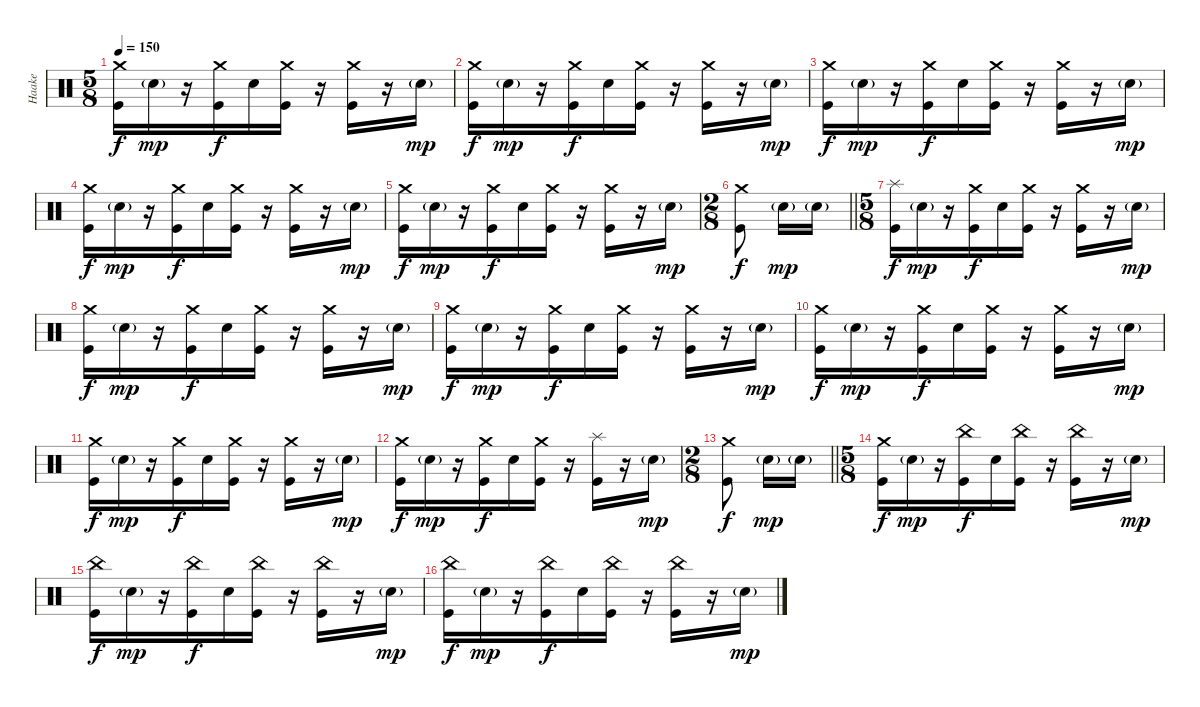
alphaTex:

\track ("Haake" "Haake") {instrument percussion}
\staff {score}
\articulation defaults
\ts (5 8)
\tempo 150
\clef neutral
\ks c
("Crash medium (hit)" "Kick (hit)").16{dy f} "Snare (hit) 2"{g}.16{dy mp} r.16 ("Crash medium (hit)" "Kick (hit)").16{dy f} "Snare (hit) 2".16 ("Crash medium (hit)" "Kick (hit)").16 r.16 ("Crash medium (hit)" "Kick (hit)").16 r.16 "Snare (hit) 2"{g}.16{dy mp} |
("Crash medium (hit)" "Kick (hit)").16{dy f} "Snare (hit) 2"{g}.16{dy mp} r.16 ("Crash medium (hit)" "Kick (hit)").16{dy f} "Snare (hit) 2".16 ("Crash medium (hit)" "Kick (hit)").16 r.16 ("Crash medium (hit)" "Kick (hit)").16 r.16 "Snare (hit) 2"{g}.16{dy mp} |
("Crash medium (hit)" "Kick (hit)").16{dy f} "Snare (hit) 2"{g}.16{dy mp} r.16 ("Crash medium (hit)" "Kick (hit)").16{dy f} "Snare (hit) 2".16 ("Crash medium (hit)" "Kick (hit)").16 r.16 ("Crash medium (hit)" "Kick (hit)").16 r.16 "Snare (hit) 2"{g}.16{dy mp} |
("Crash medium (hit)" "Kick (hit)").16{dy f} "Snare (hit) 2"{g}.16{dy mp} r.16 ("Crash medium (hit)" "Kick (hit)").16{dy f} "Snare (hit) 2".16 ("Crash medium (hit)" "Kick (hit)").16 r.16 ("Crash medium (hit)" "Kick (hit)").16 r.16 "Snare (hit) 2"{g}.16{dy mp} |
("Crash medium (hit)" "Kick (hit)").16{dy f} "Snare (hit) 2"{g}.16{dy mp} r.16 ("Crash medium (hit)" "Kick (hit)").16{dy f} "Snare (hit) 2".16 ("Crash medium (hit)" "Kick (hit)").16 r.16 ("Crash medium (hit)" "Kick (hit)").16 r.16 "Snare (hit) 2"{g}.16{dy mp} |
\ts (2 8)
\barLineRight lightlight
("Crash medium (hit)" "Kick (hit)").8{dy f} "Snare (hit) 2"{g}.16{dy mp} "Snare (hit) 2"{g}.16 |
\ts (5 8)
("Splash (hit)" "Kick (hit)").16{dy f} "Snare (hit) 2"{g}.16{dy mp} r.16 ("Crash medium (hit)" "Kick (hit)").16{dy f} "Snare (hit) 2".16 ("Crash medium (hit)" "Kick (hit)").16 r.16 ("Crash medium (hit)" "Kick (hit)").16 r.16 "Snare (hit) 2"{g}.16{dy mp} |
("Crash medium (hit)" "Kick (hit)").16{dy f} "Snare (hit) 2"{g}.16{dy mp} r.16 ("Crash medium (hit)" "Kick (hit)").16{dy f} "Snare (hit) 2".16 ("Crash medium (hit)" "Kick (hit)").16 r.16 ("Crash medium (hit)" "Kick (hit)").16 r.16 "Snare (hit) 2"{g}.16{dy mp} |
("Crash medium (hit)" "Kick (hit)").16{dy f} "Snare (hit) 2"{g}.16{dy mp} r.16 ("Crash medium (hit)" "Kick (hit)").16{dy f} "Snare (hit) 2".16 ("Crash medium (hit)" "Kick (hit)").16 r.16 ("Crash medium (hit)" "Kick (hit)").16 r.16 "Snare (hit) 2"{g}.16{dy mp} |
("Crash medium (hit)" "Kick (hit)").16{dy f} "Snare (hit) 2"{g}.16{dy mp} r.16 ("Crash medium (hit)" "Kick (hit)").16{dy f} "Snare (hit) 2".16 ("Crash medium (hit)" "Kick (hit)").16 r.16 ("Crash medium (hit)" "Kick (hit)").16 r.16 "Snare (hit) 2"{g}.16{dy mp} |
("Crash medium (hit)" "Kick (hit)").16{dy f} "Snare (hit) 2"{g}.16{dy mp} r.16 ("Crash medium (hit)" "Kick (hit)").16{dy f} "Snare (hit) 2".16 ("Crash medium (hit)" "Kick (hit)").16 r.16 ("Crash medium (hit)" "Kick (hit)").16 r.16 "Snare (hit) 2"{g}.16{dy mp} |
("Crash medium (hit)" "Kick (hit)").16{dy f} "Snare (hit) 2"{g}.16{dy mp} r.16 ("Crash medium (hit)" "Kick (hit)").16{dy f} "Snare (hit) 2".16 ("Crash medium (hit)" "Kick (hit)").16 r.16 ("Splash (hit)" "Kick (hit)").16 r.16 "Snare (hit) 2"{g}.16{dy mp} |
\ts (2 8)
\barLineRight lightlight
("Crash medium (hit)" "Kick (hit)").8{dy f} "Snare (hit) 2"{g}.16{dy mp} "Snare (hit) 2"{g}.16 |
\ts (5 8)
("Crash medium (hit)" "Kick (hit)").16{dy f} "Snare (hit) 2"{g}.16{dy mp} r.16 ("China (hit)" "Kick (hit)").16{dy f} "Snare (hit) 2".16 ("China (hit)" "Kick (hit)").16 r.16 ("China (hit)" "Kick (hit)").16 r.16 "Snare (hit) 2"{g}.16{dy mp} |
("China (hit)" "Kick (hit)").16{dy f} "Snare (hit) 2"{g}.16{dy mp} r.16 ("China (hit)" "Kick (hit)").16{dy f} "Snare (hit) 2".16 ("China (hit)" "Kick (hit)").16 r.16 ("China (hit)" "Kick (hit)").16 r.16 "Snare (hit) 2"{g}.16{dy mp} |
("China (hit)" "Kick (hit)").16{dy f} "Snare (hit) 2"{g}.16{dy mp} r.16 ("China (hit)" "Kick (hit)").16{dy f} "Snare (hit) 2".16 ("China (hit)" "Kick (hit)").16 r.16 ("China (hit)" "Kick (hit)").16 r.16 "Snare (hit) 2"{g}.16{dy mp}
